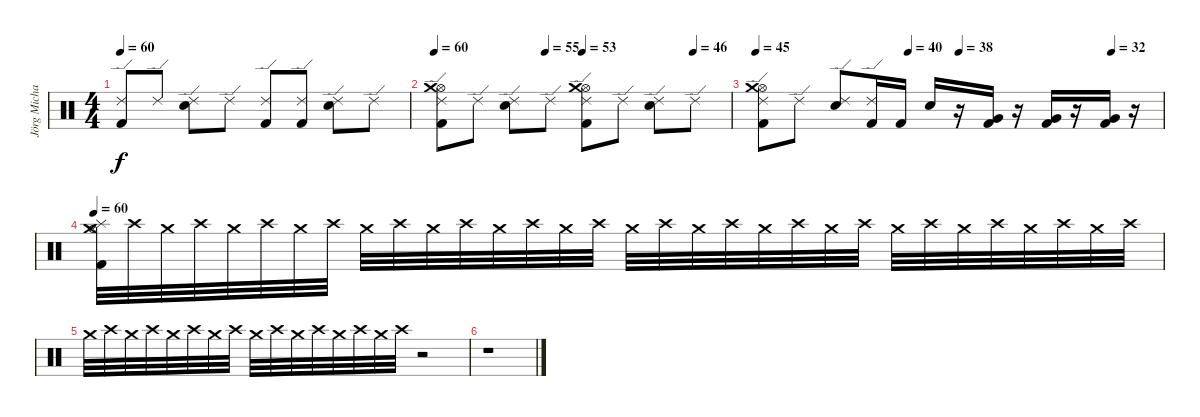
\track ("Jörg Michael (Drums)" "Jörg Micha") {instrument percussion}
\staff {score}
\articulation defaults
\ts (4 4)
\tempo 60
\clef neutral
\ks c
("Kick (hit) 2" "Ride (edge) 2").8{dy f} "Ride (edge) 2".8 ("Electric Snare (hit)" "Ride (edge) 2").8 "Ride (edge) 2".8 ("Kick (hit) 2" "Ride (edge) 2").8 ("Kick (hit) 2" "Ride (edge) 2").8 ("Electric Snare (hit)" "Ride (edge) 2").8 "Ride (edge) 2".8 |
\tempo 60
\tempo (55 0.375)
\tempo (53 0.5)
\tempo (46 0.875)
("Hi-Hat (open)" "Crash medium (hit)" "Kick (hit) 2" "Ride (edge) 2").8 "Ride (edge) 2".8 ("Electric Snare (hit)" "Ride (edge) 2").8 "Ride (edge) 2".8 ("Hi-Hat (open)" "Crash medium (hit)" "Kick (hit) 2" "Ride (edge) 2").8 "Ride (edge) 2".8 ("Electric Snare (hit)" "Ride (edge) 2").8 "Ride (edge) 2".8 |
\tempo 45
\tempo (40 0.375)
\tempo (38 0.5)
\tempo (32 0.875)
("Hi-Hat (open)" "Crash medium (hit)" "Kick (hit) 2" "Ride (edge) 2").8 "Ride (edge) 2".8 ("Electric Snare (hit)" "Ride (edge) 2").8 ("Kick (hit) 2" "Ride (edge) 2").16 "Kick (hit) 2".16 "Electric Snare (hit)".16 r.16 ("Very Low Tom (hit)" "Kick (hit) 2").16 r.16 ("Kick (hit) 2" "Very Low Tom (hit)").16 r.16 ("Kick (hit) 2" "Very Low Tom (hit)").16 r.16 |
\tempo 60
("Crash medium (hit)" "Hi-Hat (open)" "Splash (hit)" "Kick (hit) 2").32 "Crash high (hit)".32 "Crash medium (hit)".32 "Crash high (hit)".32 "Crash medium (hit)".32 "Crash high (hit)".32 "Crash medium (hit)".32 "Crash high (hit)".32 "Crash medium (hit)".32{volume 16} "Crash high (hit)".32{volume 15} "Crash medium (hit)".32{volume 15} "Crash high (hit)".32{volume 15} "Crash medium (hit)".32{volume 14} "Crash high (hit)".32{volume 14} "Crash medium (hit)".32{volume 14} "Crash high (hit)".32{volume 14} "Crash medium (hit)".32{volume 13} "Crash high (hit)".32{volume 13} "Crash medium (hit)".32{volume 13} "Crash high (hit)".32{volume 12} "Crash medium (hit)".32{volume 12} "Crash high (hit)".32{volume 12} "Crash medium (hit)".32{volume 12} "Crash high (hit)".32{volume 11} "Crash medium (hit)".32{volume 11} "Crash high (hit)".32{volume 11} "Crash medium (hit)".32{volume 10} "Crash high (hit)".32{volume 10} "Crash medium (hit)".32{volume 10} "Crash high (hit)".32{volume 10} "Crash medium (hit)".32{volume 9} "Crash high (hit)".32{volume 9} |
"Crash medium (hit)".32{volume 9} "Crash high (hit)".32{volume 8} "Crash medium (hit)".32{volume 8} "Crash high (hit)".32{volume 8} "Crash medium (hit)".32{volume 8} "Crash high (hit)".32{volume 7} "Crash medium (hit)".32{volume 7} "Crash high (hit)".32{volume 7} "Crash medium (hit)".32{volume 6} "Crash high (hit)".32{volume 6} "Crash medium (hit)".32{volume 6} "Crash high (hit)".32{volume 6} "Crash medium (hit)".32{volume 5} "Crash high (hit)".32{volume 5} "Crash medium (hit)".32{volume 5} "Crash high (hit)".32{volume 4} r.2 |
r.1
